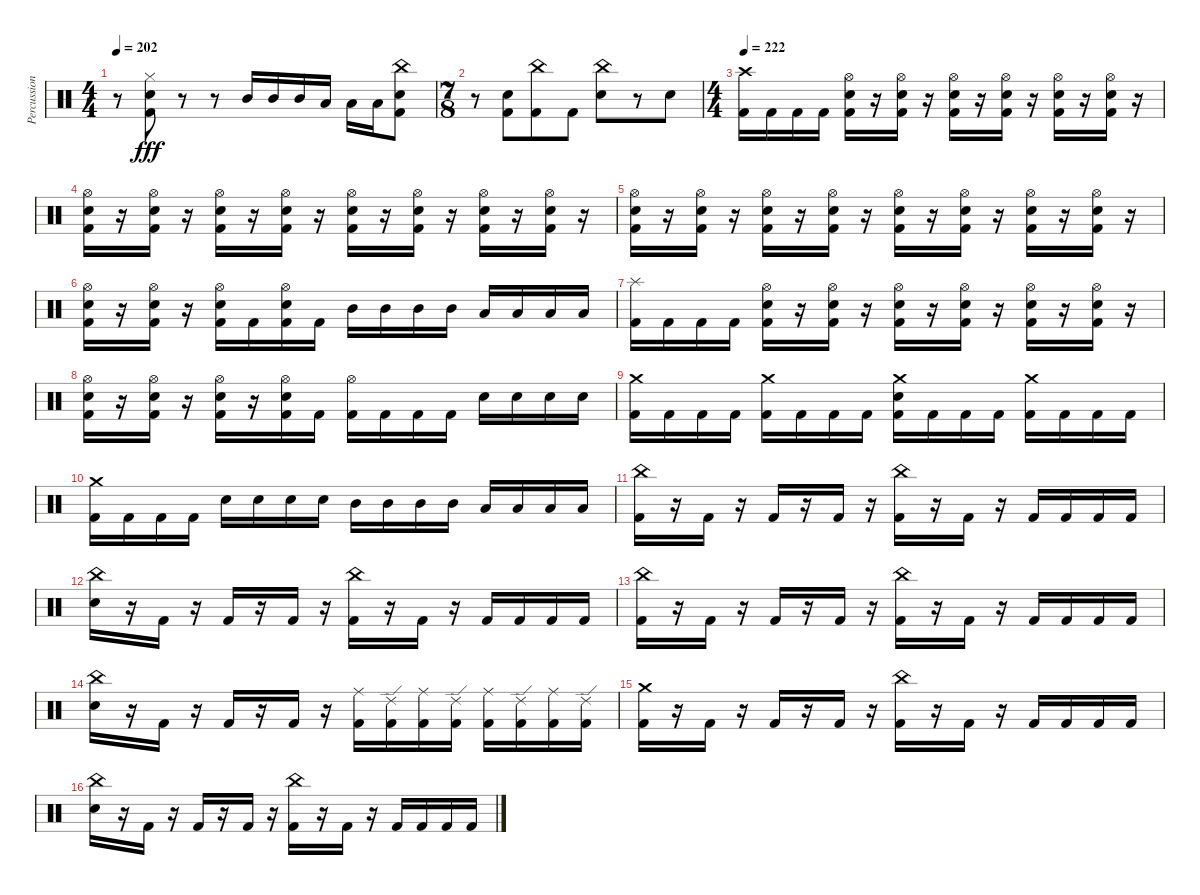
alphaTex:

\track ("Percussion" "Percussion") {instrument percussion}
\staff {score}
\articulation defaults
\ts (4 4)
\tempo 202
\clef neutral
\ks c
r.8{dy fff} ("Kick (hit) 2" "Electric Snare (hit)" "Hi-Hat (closed)").8 r.8 r.8 "Mid Tom (hit)".16 "Mid Tom (hit)".16 "Mid Tom (hit)".16 "Low Tom (hit)".16 "Low Tom (hit)".16 "Low Tom (hit)".16 ("Kick (hit) 2" "Electric Snare (hit)" "China (hit)").8 |
\ts (7 8)
r.8 ("Kick (hit) 2" "Electric Snare (hit)").8 ("Kick (hit) 2" "China (hit)").8 "Kick (hit) 2".8 ("Electric Snare (hit)" "China (hit)").8 r.8 "Electric Snare (hit)".8 |
\ts (4 4)
\tempo 222
("Kick (hit) 2" "Crash high (hit)").16 "Kick (hit) 2".16 "Kick (hit) 2".16 "Kick (hit) 2".16 ("Kick (hit) 2" "Electric Snare (hit)" "Hi-Hat (open)").16 r.16 ("Kick (hit) 2" "Electric Snare (hit)" "Hi-Hat (open)").16 r.16 ("Kick (hit) 2" "Electric Snare (hit)" "Hi-Hat (open)").16 r.16 ("Kick (hit) 2" "Electric Snare (hit)" "Hi-Hat (open)").16 r.16 ("Kick (hit) 2" "Electric Snare (hit)" "Hi-Hat (open)").16 r.16 ("Kick (hit) 2" "Electric Snare (hit)" "Hi-Hat (open)").16 r.16 |
("Kick (hit) 2" "Electric Snare (hit)" "Hi-Hat (open)").16 r.16 ("Kick (hit) 2" "Electric Snare (hit)" "Hi-Hat (open)").16 r.16 ("Kick (hit) 2" "Electric Snare (hit)" "Hi-Hat (open)").16 r.16 ("Kick (hit) 2" "Electric Snare (hit)" "Hi-Hat (open)").16 r.16 ("Kick (hit) 2" "Electric Snare (hit)" "Hi-Hat (open)").16 r.16 ("Kick (hit) 2" "Electric Snare (hit)" "Hi-Hat (open)").16 r.16 ("Kick (hit) 2" "Electric Snare (hit)" "Hi-Hat (open)").16 r.16 ("Kick (hit) 2" "Electric Snare (hit)" "Hi-Hat (open)").16 r.16 |
("Kick (hit) 2" "Electric Snare (hit)" "Hi-Hat (open)").16 r.16 ("Kick (hit) 2" "Electric Snare (hit)" "Hi-Hat (open)").16 r.16 ("Kick (hit) 2" "Electric Snare (hit)" "Hi-Hat (open)").16 r.16 ("Kick (hit) 2" "Electric Snare (hit)" "Hi-Hat (open)").16 r.16 ("Kick (hit) 2" "Electric Snare (hit)" "Hi-Hat (open)").16 r.16 ("Kick (hit) 2" "Electric Snare (hit)" "Hi-Hat (open)").16 r.16 ("Kick (hit) 2" "Electric Snare (hit)" "Hi-Hat (open)").16 r.16 ("Kick (hit) 2" "Electric Snare (hit)" "Hi-Hat (open)").16 r.16 |
("Hi-Hat (open)" "Electric Snare (hit)" "Kick (hit) 2").16 r.16 ("Hi-Hat (open)" "Electric Snare (hit)" "Kick (hit) 2").16 r.16 ("Hi-Hat (open)" "Electric Snare (hit)" "Kick (hit) 2").16 "Kick (hit) 2".16 ("Hi-Hat (open)" "Electric Snare (hit)" "Kick (hit) 2").16 "Kick (hit) 2".16 "Mid Tom (hit)".16 "Mid Tom (hit)".16 "Mid Tom (hit)".16 "Mid Tom (hit)".16 "Low Tom (hit)".16 "Low Tom (hit)".16 "Low Tom (hit)".16 "Low Tom (hit)".16 |
("Splash (hit)" "Kick (hit) 2").16 "Kick (hit) 2".16 "Kick (hit) 2".16 "Kick (hit) 2".16 ("Hi-Hat (open)" "Electric Snare (hit)" "Kick (hit) 2").16 r.16 ("Hi-Hat (open)" "Electric Snare (hit)" "Kick (hit) 2").16 r.16 ("Hi-Hat (open)" "Electric Snare (hit)" "Kick (hit) 2").16 r.16 ("Hi-Hat (open)" "Electric Snare (hit)" "Kick (hit) 2").16 r.16 ("Hi-Hat (open)" "Electric Snare (hit)" "Kick (hit) 2").16 r.16 ("Hi-Hat (open)" "Electric Snare (hit)" "Kick (hit) 2").16 r.16 |
("Hi-Hat (open)" "Electric Snare (hit)" "Kick (hit) 2").16 r.16 ("Hi-Hat (open)" "Electric Snare (hit)" "Kick (hit) 2").16 r.16 ("Hi-Hat (open)" "Electric Snare (hit)" "Kick (hit) 2").16 r.16 ("Hi-Hat (open)" "Electric Snare (hit)" "Kick (hit) 2").16 "Kick (hit) 2".16 ("Hi-Hat (open)" "Kick (hit) 2").16 "Kick (hit) 2".16 "Kick (hit) 2".16 "Kick (hit) 2".16 "Electric Snare (hit)".16 "Electric Snare (hit)".16 "Electric Snare (hit)".16 "Electric Snare (hit)".16 |
("Crash medium (hit)" "Kick (hit) 2").16 "Kick (hit) 2".16 "Kick (hit) 2".16 "Kick (hit) 2".16 ("Crash medium (hit)" "Kick (hit) 2").16 "Kick (hit) 2".16 "Kick (hit) 2".16 "Kick (hit) 2".16 ("Crash medium (hit)" "Electric Snare (hit)" "Kick (hit) 2").16 "Kick (hit) 2".16 "Kick (hit) 2".16 "Kick (hit) 2".16 ("Crash medium (hit)" "Kick (hit) 2").16 "Kick (hit) 2".16 "Kick (hit) 2".16 "Kick (hit) 2".16 |
("Crash medium (hit)" "Kick (hit) 2").16 "Kick (hit) 2".16 "Kick (hit) 2".16 "Kick (hit) 2".16 "Electric Snare (hit)".16 "Electric Snare (hit)".16 "Electric Snare (hit)".16 "Electric Snare (hit)".16 "Mid Tom (hit)".16 "Mid Tom (hit)".16 "Mid Tom (hit)".16 "Mid Tom (hit)".16 "Low Tom (hit)".16 "Low Tom (hit)".16 "Low Tom (hit)".16 "Low Tom (hit)".16 |
("Kick (hit) 2" "China (hit)").16 r.16 "Kick (hit) 2".16 r.16 "Kick (hit) 2".16 r.16 "Kick (hit) 2".16 r.16 ("Kick (hit) 2" "China (hit)").16 r.16 "Kick (hit) 2".16 r.16 "Kick (hit) 2".16 "Kick (hit) 2".16 "Kick (hit) 2".16 "Kick (hit) 2".16 |
("Electric Snare (hit)" "China (hit)").16 r.16 "Kick (hit) 2".16 r.16 "Kick (hit) 2".16 r.16 "Kick (hit) 2".16 r.16 ("Kick (hit) 2" "China (hit)").16 r.16 "Kick (hit) 2".16 r.16 "Kick (hit) 2".16 "Kick (hit) 2".16 "Kick (hit) 2".16 "Kick (hit) 2".16 |
("Kick (hit) 2" "China (hit)").16 r.16 "Kick (hit) 2".16 r.16 "Kick (hit) 2".16 r.16 "Kick (hit) 2".16 r.16 ("Kick (hit) 2" "China (hit)").16 r.16 "Kick (hit) 2".16 r.16 "Kick (hit) 2".16 "Kick (hit) 2".16 "Kick (hit) 2".16 "Kick (hit) 2".16 |
("Electric Snare (hit)" "China (hit)").16 r.16 "Kick (hit) 2".16 r.16 "Kick (hit) 2".16 r.16 "Kick (hit) 2".16 r.16 ("Kick (hit) 2" "Ride (middle)").16 ("Kick (hit) 2" "Ride (edge) 2").16 ("Kick (hit) 2" "Ride (middle)").16 ("Kick (hit) 2" "Ride (edge) 2").16 ("Kick (hit) 2" "Ride (middle)").16 ("Kick (hit) 2" "Ride (edge) 2").16 ("Kick (hit) 2" "Ride (middle)").16 ("Kick (hit) 2" "Ride (edge) 2").16 |
("Kick (hit) 2" "Crash medium (hit)").16 r.16 "Kick (hit) 2".16 r.16 "Kick (hit) 2".16 r.16 "Kick (hit) 2".16 r.16 ("Kick (hit) 2" "China (hit)").16 r.16 "Kick (hit) 2".16 r.16 "Kick (hit) 2".16 "Kick (hit) 2".16 "Kick (hit) 2".16 "Kick (hit) 2".16 |
("Electric Snare (hit)" "China (hit)").16 r.16 "Kick (hit) 2".16 r.16 "Kick (hit) 2".16 r.16 "Kick (hit) 2".16 r.16 ("Kick (hit) 2" "China (hit)").16 r.16 "Kick (hit) 2".16 r.16 "Kick (hit) 2".16 "Kick (hit) 2".16 "Kick (hit) 2".16 "Kick (hit) 2".16
